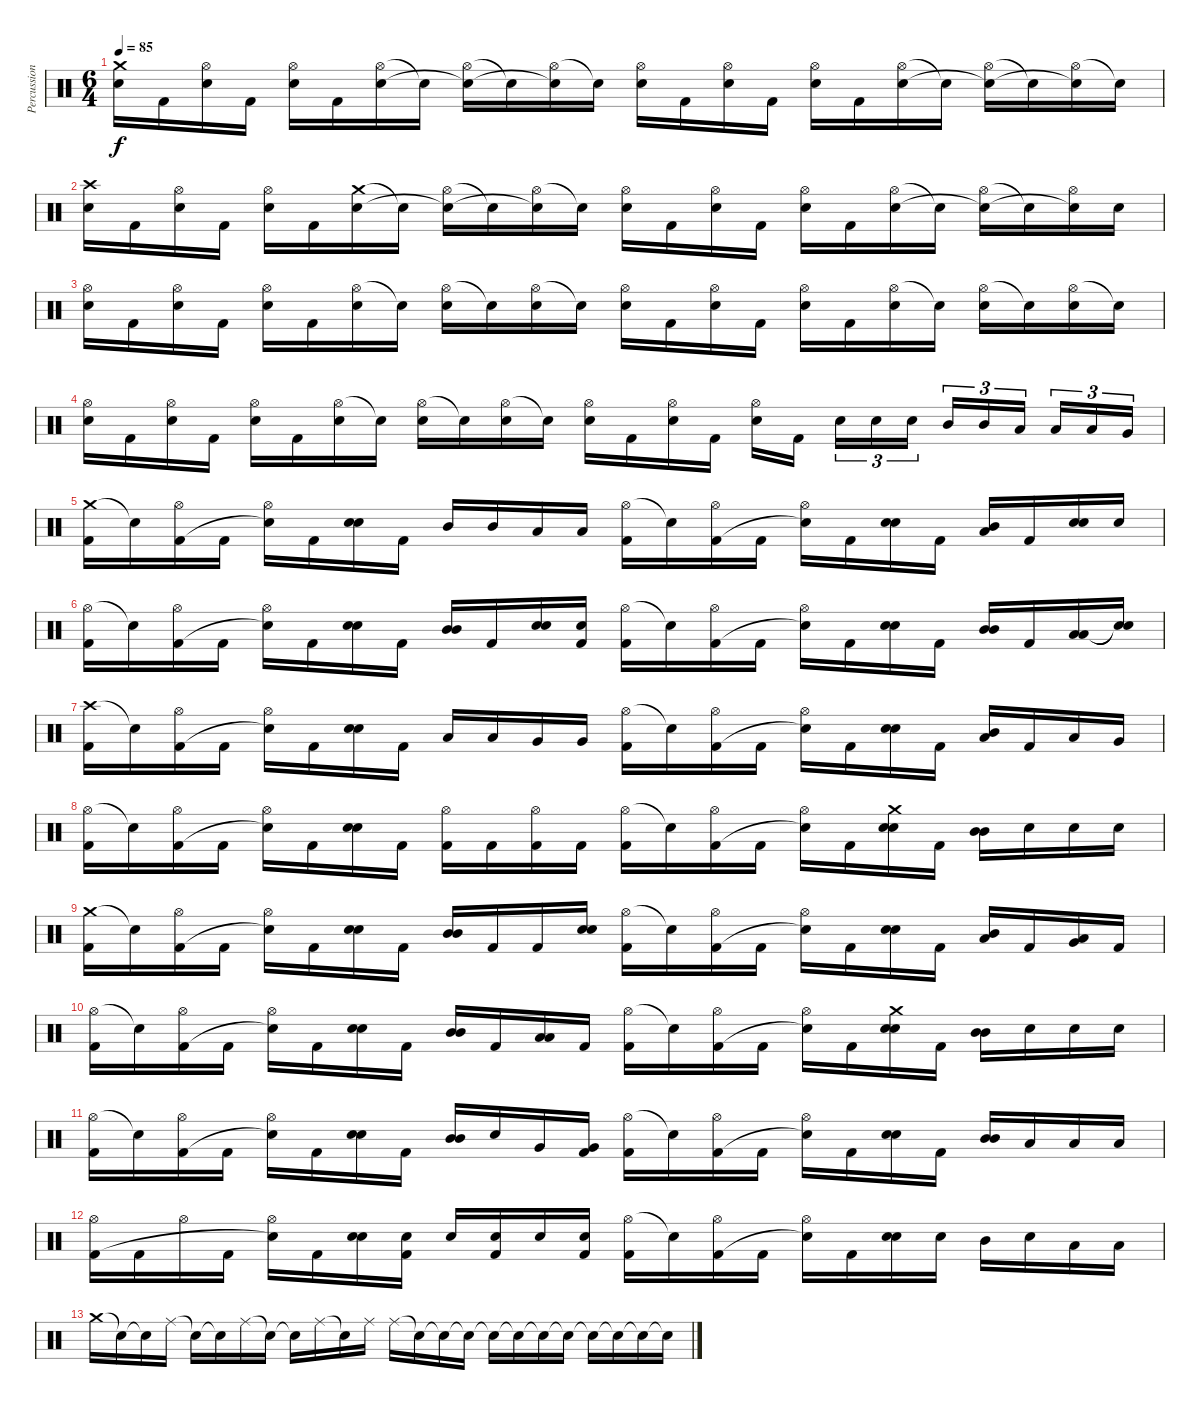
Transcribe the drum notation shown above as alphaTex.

\track ("Percussion" "Percussion") {instrument percussion}
\staff {score}
\articulation defaults
\ts (6 4)
\tempo 85
\clef neutral
\ks c
("Crash medium (hit)" "Snare (hit) 2").16{dy f} "Kick (hit) 2".16 ("Hi-Hat (open)" "Snare (hit) 2").16 "Kick (hit) 2".16 ("Hi-Hat (open)" "Snare (hit) 2").16 "Kick (hit) 2".16 ("Hi-Hat (open)" "Snare (hit) 2").16 "Snare (hit)"{t}.16 ("Hi-Hat (open)" "Snare (hit)"{t}).16 "Snare (hit)"{t}.16 ("Hi-Hat (open)" "Snare (hit)"{t}).16 "Snare (hit)"{t}.16 ("Hi-Hat (open)" "Snare (hit) 2").16 "Kick (hit) 2".16 ("Hi-Hat (open)" "Snare (hit) 2").16 "Kick (hit) 2".16 ("Hi-Hat (open)" "Snare (hit) 2").16 "Kick (hit) 2".16 ("Hi-Hat (open)" "Snare (hit) 2").16 "Snare (hit)"{t}.16 ("Hi-Hat (open)" "Snare (hit)"{t}).16 "Snare (hit)"{t}.16 ("Hi-Hat (open)" "Snare (hit)"{t}).16 "Snare (hit)"{t}.16 |
("Crash high (hit)" "Snare (hit) 2").16 "Kick (hit) 2".16 ("Hi-Hat (open)" "Snare (hit) 2").16 "Kick (hit) 2".16 ("Hi-Hat (open)" "Snare (hit) 2").16 "Kick (hit) 2".16 ("Crash medium (hit)" "Snare (hit) 2").16 "Snare (hit)"{t}.16 ("Hi-Hat (open)" "Snare (hit)"{t}).16 "Snare (hit)"{t}.16 ("Hi-Hat (open)" "Snare (hit)"{t}).16 "Snare (hit)"{t}.16 ("Hi-Hat (open)" "Snare (hit) 2").16 "Kick (hit) 2".16 ("Hi-Hat (open)" "Snare (hit) 2").16 "Kick (hit) 2".16 ("Hi-Hat (open)" "Snare (hit) 2").16 "Kick (hit) 2".16 ("Hi-Hat (open)" "Snare (hit) 2").16 "Snare (hit)"{t}.16 ("Hi-Hat (open)" "Snare (hit)"{t}).16 "Snare (hit)"{t}.16 ("Hi-Hat (open)" "Snare (hit)"{t}).16 "Snare (hit) 2".16 |
("Hi-Hat (open)" "Snare (hit) 2").16 "Kick (hit) 2".16 ("Hi-Hat (open)" "Snare (hit) 2").16 "Kick (hit) 2".16 ("Hi-Hat (open)" "Snare (hit) 2").16 "Kick (hit) 2".16 ("Hi-Hat (open)" "Snare (hit) 2").16 "Snare (hit)"{t}.16 ("Hi-Hat (open)" "Snare (hit) 2").16 "Snare (hit)"{t}.16 ("Hi-Hat (open)" "Snare (hit) 2").16 "Snare (hit)"{t}.16 ("Hi-Hat (open)" "Snare (hit) 2").16 "Kick (hit) 2".16 ("Hi-Hat (open)" "Snare (hit) 2").16 "Kick (hit) 2".16 ("Hi-Hat (open)" "Snare (hit) 2").16 "Kick (hit) 2".16 ("Hi-Hat (open)" "Snare (hit) 2").16 "Snare (hit)"{t}.16 ("Hi-Hat (open)" "Snare (hit) 2").16 "Snare (hit)"{t}.16 ("Hi-Hat (open)" "Snare (hit) 2").16 "Snare (hit)"{t}.16 |
("Hi-Hat (open)" "Snare (hit) 2").16 "Kick (hit) 2".16 ("Hi-Hat (open)" "Snare (hit) 2").16 "Kick (hit) 2".16 ("Hi-Hat (open)" "Snare (hit) 2").16 "Kick (hit) 2".16 ("Hi-Hat (open)" "Snare (hit) 2").16 "Snare (hit)"{t}.16 ("Hi-Hat (open)" "Snare (hit) 2").16 "Snare (hit)"{t}.16 ("Hi-Hat (open)" "Snare (hit) 2").16 "Snare (hit)"{t}.16 ("Hi-Hat (open)" "Snare (hit) 2").16 "Kick (hit) 2".16 ("Hi-Hat (open)" "Snare (hit) 2").16 "Kick (hit) 2".16 ("Hi-Hat (open)" "Snare (hit) 2").16 "Kick (hit) 2".16{beam splitsecondary} "Snare (hit) 2".16{tu (3 2)} "Snare (hit) 2".16{tu (3 2)} "Snare (hit) 2".16{tu (3 2) beam splitsecondary} "Mid Tom (hit)".16{tu (3 2)} "Mid Tom (hit)".16{tu (3 2)} "Low Tom (hit)".16{tu (3 2) beam splitsecondary} "Low Tom (hit)".16{tu (3 2)} "Low Tom (hit)".16{tu (3 2)} "Very Low Tom (hit)".16{tu (3 2)} |
("Crash medium (hit)" "Kick (hit) 2").16 "Snare (hit)"{t}.16 ("Hi-Hat (open)" "Kick (hit) 2").16 "Kick (hit) 2".16 ("Hi-Hat (open)" "Snare (hit)"{t}).16 "Kick (hit) 2".16 ("Snare (hit) 2" "Snare (hit) 2").16{bd 60} "Kick (hit) 2".16 "Mid Tom (hit)".16 "Mid Tom (hit)".16 "Low Tom (hit)".16 "Low Tom (hit)".16 ("Hi-Hat (open)" "Kick (hit) 2").16 "Snare (hit)"{t}.16 ("Hi-Hat (open)" "Kick (hit) 2").16 "Kick (hit) 2".16 ("Hi-Hat (open)" "Snare (hit)"{t}).16 "Kick (hit) 2".16 ("Snare (hit) 2" "Snare (hit) 2").16{bd 60} "Kick (hit) 2".16 ("Low Tom (hit)" "Mid Tom (hit)").16{bd 60} "Kick (hit) 2".16 ("Snare (hit) 2" "Snare (hit) 2").16{bd 60} "Snare (hit) 2".16 |
("Hi-Hat (open)" "Kick (hit) 2").16 "Snare (hit)"{t}.16 ("Hi-Hat (open)" "Kick (hit) 2").16 "Kick (hit) 2".16 ("Hi-Hat (open)" "Snare (hit)"{t}).16 "Kick (hit) 2".16 ("Snare (hit) 2" "Snare (hit) 2").16{bd 60} "Kick (hit) 2".16 ("Mid Tom (hit)" "Mid Tom (hit)").16{bd 60} "Kick (hit) 2".16 ("Snare (hit) 2" "Snare (hit) 2").16{bd 60} ("Snare (hit) 2" "Kick (hit) 2").16 ("Hi-Hat (open)" "Kick (hit) 2").16 "Snare (hit)"{t}.16 ("Hi-Hat (open)" "Kick (hit) 2").16 "Kick (hit) 2".16 ("Hi-Hat (open)" "Snare (hit)"{t}).16 "Kick (hit) 2".16 ("Snare (hit) 2" "Snare (hit) 2").16{bd 60} "Kick (hit) 2".16 ("Mid Tom (hit)" "Mid Tom (hit)").16{bd 60} "Kick (hit) 2".16 ("Low Tom (hit)" "Low Tom (hit)").16{bd 60} ("Snare (hit)"{t} "Snare (hit)"{t}).16 |
("Crash high (hit)" "Kick (hit) 2").16 "Snare (hit)"{t}.16 ("Hi-Hat (open)" "Kick (hit) 2").16 "Kick (hit) 2".16 ("Hi-Hat (open)" "Snare (hit)"{t}).16 "Kick (hit) 2".16 ("Snare (hit) 2" "Snare (hit) 2").16{bd 60} "Kick (hit) 2".16 "Low Tom (hit)".16 "Low Tom (hit)".16 "Very Low Tom (hit)".16 "Very Low Tom (hit)".16 ("Hi-Hat (open)" "Kick (hit) 2").16 "Snare (hit)"{t}.16 ("Hi-Hat (open)" "Kick (hit) 2").16 "Kick (hit) 2".16 ("Hi-Hat (open)" "Snare (hit)"{t}).16 "Kick (hit) 2".16 ("Snare (hit) 2" "Snare (hit) 2").16{bd 60} "Kick (hit) 2".16 ("Low Tom (hit)" "Mid Tom (hit)").16{bd 60} "Kick (hit) 2".16 "Low Tom (hit)".16 "Very Low Tom (hit)".16 |
("Hi-Hat (open)" "Kick (hit) 2").16 "Snare (hit)"{t}.16 ("Hi-Hat (open)" "Kick (hit) 2").16 "Kick (hit) 2".16 ("Hi-Hat (open)" "Snare (hit)"{t}).16 "Kick (hit) 2".16 ("Snare (hit) 2" "Snare (hit) 2").16{bd 60} "Kick (hit) 2".16 ("Hi-Hat (open)" "Kick (hit) 2").16 "Kick (hit) 2".16 ("Hi-Hat (open)" "Kick (hit) 2").16 "Kick (hit) 2".16 ("Hi-Hat (open)" "Kick (hit) 2").16 "Snare (hit)"{t}.16 ("Hi-Hat (open)" "Kick (hit) 2").16 "Kick (hit) 2".16 ("Hi-Hat (open)" "Snare (hit)"{t}).16 "Kick (hit) 2".16 ("Crash medium (hit)" "Snare (hit) 2" "Snare (hit) 2").16{bu 60} "Kick (hit) 2".16 ("Mid Tom (hit)" "Mid Tom (hit)").16{bd 60} "Snare (hit) 2".16 "Snare (hit) 2".16 "Snare (hit) 2".16 |
("Crash medium (hit)" "Kick (hit) 2").16 "Snare (hit)"{t}.16 ("Hi-Hat (open)" "Kick (hit) 2").16 "Kick (hit) 2".16 ("Hi-Hat (open)" "Snare (hit)"{t}).16 "Kick (hit) 2".16 ("Snare (hit) 2" "Snare (hit) 2").16{bd 60} "Kick (hit) 2".16 ("Mid Tom (hit)" "Mid Tom (hit)").16{bd 60} "Kick (hit) 2".16 "Kick (hit) 2".16 ("Snare (hit) 2" "Snare (hit) 2").16{bd 60} ("Hi-Hat (open)" "Kick (hit) 2").16 "Snare (hit)"{t}.16 ("Hi-Hat (open)" "Kick (hit) 2").16 "Kick (hit) 2".16 ("Hi-Hat (open)" "Snare (hit)"{t}).16 "Kick (hit) 2".16 ("Snare (hit) 2" "Snare (hit) 2").16{bd 60} "Kick (hit) 2".16 ("Low Tom (hit)" "Mid Tom (hit)").16{bd 60} "Kick (hit) 2".16 ("Very Low Tom (hit)" "Low Tom (hit)").16{bd 60} "Kick (hit) 2".16 |
("Hi-Hat (open)" "Kick (hit) 2").16 "Snare (hit)"{t}.16 ("Hi-Hat (open)" "Kick (hit) 2").16 "Kick (hit) 2".16 ("Hi-Hat (open)" "Snare (hit)"{t}).16 "Kick (hit) 2".16 ("Snare (hit) 2" "Snare (hit) 2").16{bd 60} "Kick (hit) 2".16 ("Mid Tom (hit)" "Mid Tom (hit)").16{bd 60} "Kick (hit) 2".16 ("Low Tom (hit)" "Low Tom (hit)").16{bd 60} "Kick (hit) 2".16 ("Hi-Hat (open)" "Kick (hit) 2").16 "Snare (hit)"{t}.16 ("Hi-Hat (open)" "Kick (hit) 2").16 "Kick (hit) 2".16 ("Hi-Hat (open)" "Snare (hit)"{t}).16 "Kick (hit) 2".16 ("Crash medium (hit)" "Snare (hit) 2" "Snare (hit) 2").16{bu 60} "Kick (hit) 2".16 ("Mid Tom (hit)" "Mid Tom (hit)").16{bd 60} "Snare (hit) 2".16 "Snare (hit) 2".16 "Snare (hit) 2".16 |
("Hi-Hat (open)" "Kick (hit) 2").16 "Snare (hit)"{t}.16 ("Hi-Hat (open)" "Kick (hit) 2").16 "Kick (hit) 2".16 ("Hi-Hat (open)" "Snare (hit)"{t}).16 "Kick (hit) 2".16 ("Snare (hit) 2" "Snare (hit) 2").16{bd 60} "Kick (hit) 2".16 ("Mid Tom (hit)" "Mid Tom (hit)").16{bd 60} "Snare (hit) 2".16 "Very Low Tom (hit)".16 ("Very Low Tom (hit)" "Kick (hit) 2").16 ("Hi-Hat (open)" "Kick (hit) 2").16 "Snare (hit)"{t}.16 ("Hi-Hat (open)" "Kick (hit) 2").16 "Kick (hit) 2".16 ("Hi-Hat (open)" "Snare (hit)"{t}).16 "Kick (hit) 2".16 ("Snare (hit) 2" "Snare (hit) 2").16{bu 60} "Kick (hit) 2".16 ("Mid Tom (hit)" "Mid Tom (hit)").16{bd 60} "Low Tom (hit)".16 "Low Tom (hit)".16 "Low Tom (hit)".16 |
("Hi-Hat (open)" "Kick (hit) 2").16 "Kick (hit) 2".16 "Hi-Hat (open)".16 "Kick (hit) 2".16 ("Hi-Hat (open)" "Snare (hit)"{t}).16 "Kick (hit) 2".16 ("Snare (hit) 2" "Snare (hit) 2").16{bd 60} ("Snare (hit) 2" "Kick (hit) 2").16 "Snare (hit) 2".16 ("Snare (hit) 2" "Kick (hit) 2").16 "Snare (hit) 2".16 ("Snare (hit) 2" "Kick (hit) 2").16 ("Hi-Hat (open)" "Kick (hit) 2").16 "Snare (hit)"{t}.16 ("Hi-Hat (open)" "Kick (hit) 2").16 "Kick (hit) 2".16 ("Hi-Hat (open)" "Snare (hit)"{t}).16 "Kick (hit) 2".16 ("Snare (hit) 2" "Snare (hit) 2").16{bd 60} "Snare (hit) 2".16 "Mid Tom (hit)".16 "Snare (hit) 2".16 "Low Tom (hit)".16 "Low Tom (hit)".16 |
"Crash medium (hit)".16 "Snare (hit)"{t}.16 "Snare (hit)"{t}.16 "Ride (middle)".16 "Snare (hit)"{t}.16 "Snare (hit)"{t}.16 "Ride (middle)".16 "Snare (hit)"{t}.16 "Snare (hit)"{t}.16 "Ride (middle)".16 "Snare (hit)"{t}.16 "Ride (middle)".16 "Ride (middle)".16 "Snare (hit)"{t}.16 "Snare (hit)"{t}.16 "Snare (hit)"{t}.16 "Snare (hit)"{t}.16 "Snare (hit)"{t}.16 "Snare (hit)"{t}.16 "Snare (hit)"{t}.16 "Snare (hit)"{t}.16 "Snare (hit)"{t}.16 "Snare (hit)"{t}.16 "Snare (hit)"{t}.16
